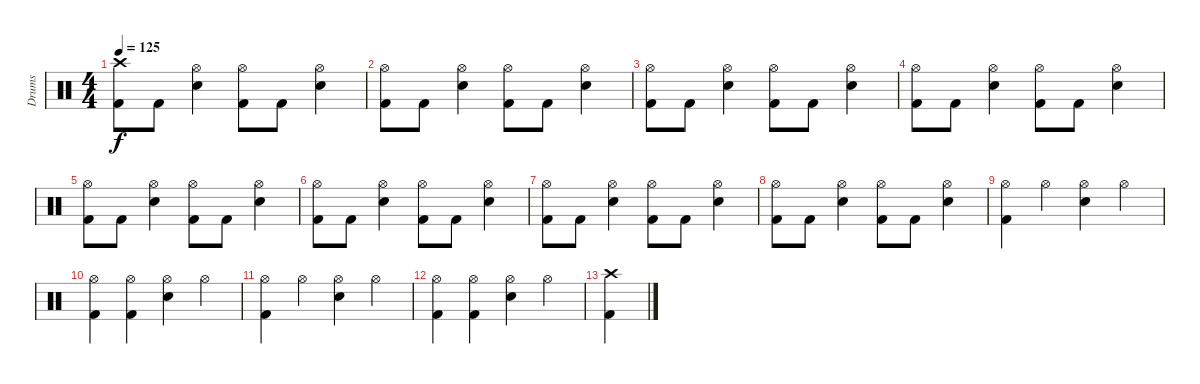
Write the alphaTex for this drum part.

\track ("Drums" "Drums") {instrument percussion}
\staff {score}
\articulation defaults
\ts (4 4)
\tempo 125
\clef neutral
\ks c
("Crash high (hit)" "Kick (hit) 2").8{dy f} "Kick (hit) 2".8 ("Hi-Hat (open)" "Snare (hit) 2").4 ("Hi-Hat (open)" "Kick (hit) 2").8 "Kick (hit) 2".8 ("Hi-Hat (open)" "Snare (hit) 2").4 |
("Hi-Hat (open)" "Kick (hit) 2").8 "Kick (hit) 2".8 ("Hi-Hat (open)" "Snare (hit) 2").4 ("Hi-Hat (open)" "Kick (hit) 2").8 "Kick (hit) 2".8 ("Hi-Hat (open)" "Snare (hit) 2").4 |
("Hi-Hat (open)" "Kick (hit) 2").8 "Kick (hit) 2".8 ("Hi-Hat (open)" "Snare (hit) 2").4 ("Hi-Hat (open)" "Kick (hit) 2").8 "Kick (hit) 2".8 ("Hi-Hat (open)" "Snare (hit) 2").4 |
("Hi-Hat (open)" "Kick (hit) 2").8 "Kick (hit) 2".8 ("Hi-Hat (open)" "Snare (hit) 2").4 ("Hi-Hat (open)" "Kick (hit) 2").8 "Kick (hit) 2".8 ("Hi-Hat (open)" "Snare (hit) 2").4 |
("Hi-Hat (open)" "Kick (hit) 2").8 "Kick (hit) 2".8 ("Hi-Hat (open)" "Snare (hit) 2").4 ("Hi-Hat (open)" "Kick (hit) 2").8 "Kick (hit) 2".8 ("Hi-Hat (open)" "Snare (hit) 2").4 |
("Hi-Hat (open)" "Kick (hit) 2").8 "Kick (hit) 2".8 ("Hi-Hat (open)" "Snare (hit) 2").4 ("Hi-Hat (open)" "Kick (hit) 2").8 "Kick (hit) 2".8 ("Hi-Hat (open)" "Snare (hit) 2").4 |
("Hi-Hat (open)" "Kick (hit) 2").8 "Kick (hit) 2".8 ("Hi-Hat (open)" "Snare (hit) 2").4 ("Hi-Hat (open)" "Kick (hit) 2").8 "Kick (hit) 2".8 ("Hi-Hat (open)" "Snare (hit) 2").4 |
("Hi-Hat (open)" "Kick (hit) 2").8 "Kick (hit) 2".8 ("Hi-Hat (open)" "Snare (hit) 2").4 ("Hi-Hat (open)" "Kick (hit) 2").8 "Kick (hit) 2".8 ("Hi-Hat (open)" "Snare (hit) 2").4 |
("Hi-Hat (open)" "Kick (hit) 2").4 "Hi-Hat (open)".4 ("Hi-Hat (open)" "Snare (hit) 2").4 "Hi-Hat (open)".4 |
("Hi-Hat (open)" "Kick (hit) 2").4 ("Hi-Hat (open)" "Kick (hit) 2").4 ("Hi-Hat (open)" "Snare (hit) 2").4 "Hi-Hat (open)".4 |
("Hi-Hat (open)" "Kick (hit) 2").4 "Hi-Hat (open)".4 ("Hi-Hat (open)" "Snare (hit) 2").4 "Hi-Hat (open)".4 |
("Hi-Hat (open)" "Kick (hit) 2").4 ("Hi-Hat (open)" "Kick (hit) 2").4 ("Hi-Hat (open)" "Snare (hit) 2").4 "Hi-Hat (open)".4 |
("Crash high (hit)" "Kick (hit) 2").4
